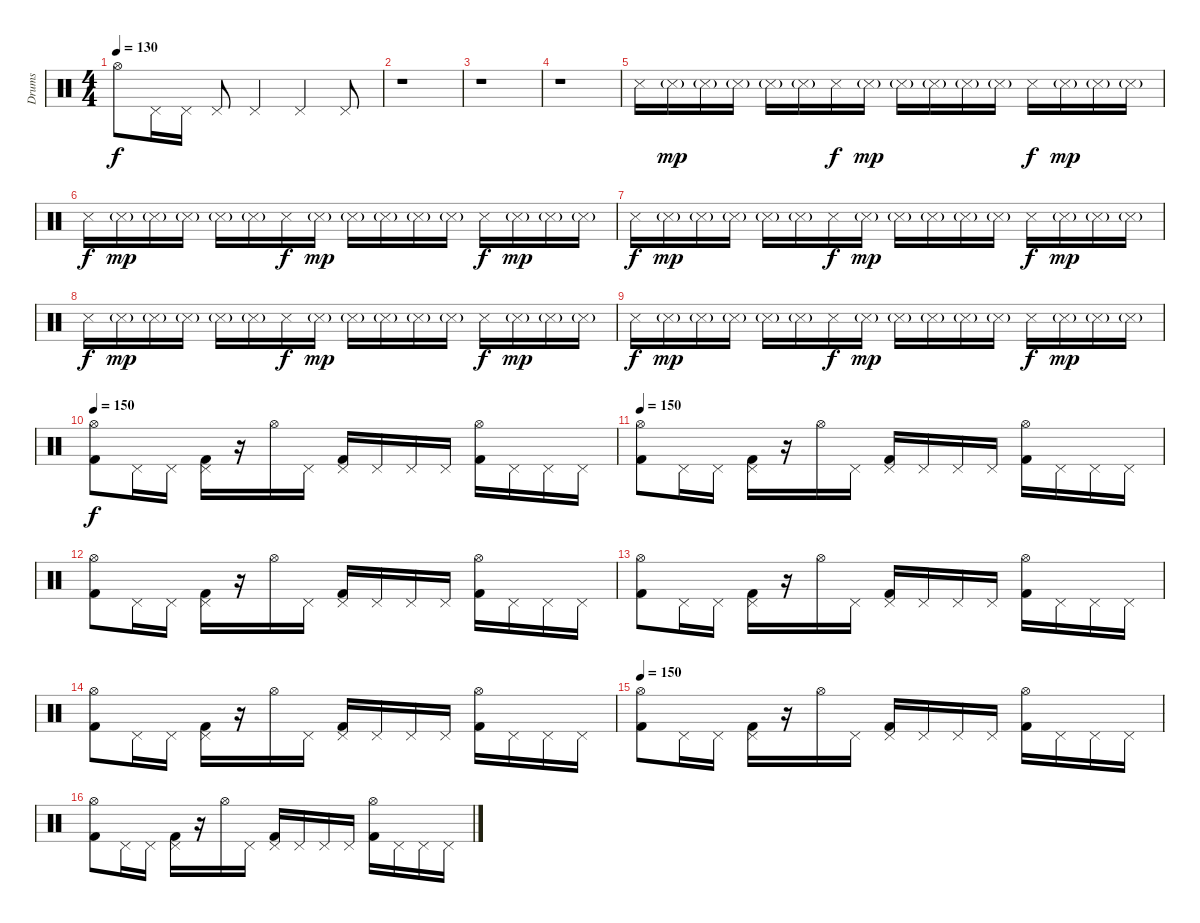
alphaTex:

\track ("Drums" "Drums") {instrument percussion}
\staff {score}
\articulation defaults
\ts (4 4)
\tempo 130
\clef neutral
\ks c "Hi-Hat (open)".8{dy f} "Pedal Hi-Hat (hit)".16 "Pedal Hi-Hat (hit)".16 "Pedal Hi-Hat (hit)".8 "Pedal Hi-Hat (hit)".4 "Pedal Hi-Hat (hit)".4 "Pedal Hi-Hat (hit)".8
|
r.1 |
r.1 |
r.1 |
"Metronome (hit)".16 "Metronome (hit)"{g}.16{dy mp} "Metronome (hit)"{g}.16 "Metronome (hit)"{g}.16 "Metronome (hit)"{g}.16 "Metronome (hit)"{g}.16 "Metronome (hit)".16{dy f} "Metronome (hit)"{g}.16{dy mp} "Metronome (hit)"{g}.16 "Metronome (hit)"{g}.16 "Metronome (hit)"{g}.16 "Metronome (hit)"{g}.16 "Metronome (hit)".16{dy f} "Metronome (hit)"{g}.16{dy mp} "Metronome (hit)"{g}.16 "Metronome (hit)"{g}.16 |
"Metronome (hit)".16{dy f} "Metronome (hit)"{g}.16{dy mp} "Metronome (hit)"{g}.16 "Metronome (hit)"{g}.16 "Metronome (hit)"{g}.16 "Metronome (hit)"{g}.16 "Metronome (hit)".16{dy f} "Metronome (hit)"{g}.16{dy mp} "Metronome (hit)"{g}.16 "Metronome (hit)"{g}.16 "Metronome (hit)"{g}.16 "Metronome (hit)"{g}.16 "Metronome (hit)".16{dy f} "Metronome (hit)"{g}.16{dy mp} "Metronome (hit)"{g}.16 "Metronome (hit)"{g}.16 |
"Metronome (hit)".16{dy f} "Metronome (hit)"{g}.16{dy mp} "Metronome (hit)"{g}.16 "Metronome (hit)"{g}.16 "Metronome (hit)"{g}.16 "Metronome (hit)"{g}.16 "Metronome (hit)".16{dy f} "Metronome (hit)"{g}.16{dy mp} "Metronome (hit)"{g}.16 "Metronome (hit)"{g}.16 "Metronome (hit)"{g}.16 "Metronome (hit)"{g}.16 "Metronome (hit)".16{dy f} "Metronome (hit)"{g}.16{dy mp} "Metronome (hit)"{g}.16 "Metronome (hit)"{g}.16 |
"Metronome (hit)".16{dy f} "Metronome (hit)"{g}.16{dy mp} "Metronome (hit)"{g}.16 "Metronome (hit)"{g}.16 "Metronome (hit)"{g}.16 "Metronome (hit)"{g}.16 "Metronome (hit)".16{dy f} "Metronome (hit)"{g}.16{dy mp} "Metronome (hit)"{g}.16 "Metronome (hit)"{g}.16 "Metronome (hit)"{g}.16 "Metronome (hit)"{g}.16 "Metronome (hit)".16{dy f} "Metronome (hit)"{g}.16{dy mp} "Metronome (hit)"{g}.16 "Metronome (hit)"{g}.16 |
"Metronome (hit)".16{dy f} "Metronome (hit)"{g}.16{dy mp} "Metronome (hit)"{g}.16 "Metronome (hit)"{g}.16 "Metronome (hit)"{g}.16 "Metronome (hit)"{g}.16 "Metronome (hit)".16{dy f} "Metronome (hit)"{g}.16{dy mp} "Metronome (hit)"{g}.16 "Metronome (hit)"{g}.16 "Metronome (hit)"{g}.16 "Metronome (hit)"{g}.16 "Metronome (hit)".16{dy f} "Metronome (hit)"{g}.16{dy mp} "Metronome (hit)"{g}.16 "Metronome (hit)"{g}.16 |
\tempo 150
("Hi-Hat (open)" "Kick (hit) 2").8{dy f} "Pedal Hi-Hat (hit)".16 "Pedal Hi-Hat (hit)".16 ("Pedal Hi-Hat (hit)" "Kick (hit) 2").16 r.16 "Hi-Hat (open)".16 "Pedal Hi-Hat (hit)".16 ("Pedal Hi-Hat (hit)" "Kick (hit) 2").16 "Pedal Hi-Hat (hit)".16 "Pedal Hi-Hat (hit)".16 "Pedal Hi-Hat (hit)".16 ("Hi-Hat (open)" "Kick (hit) 2").16 "Pedal Hi-Hat (hit)".16 "Pedal Hi-Hat (hit)".16 "Pedal Hi-Hat (hit)".16 |
\tempo 150
("Hi-Hat (open)" "Kick (hit) 2").8 "Pedal Hi-Hat (hit)".16 "Pedal Hi-Hat (hit)".16 ("Pedal Hi-Hat (hit)" "Kick (hit) 2").16 r.16 "Hi-Hat (open)".16 "Pedal Hi-Hat (hit)".16 ("Pedal Hi-Hat (hit)" "Kick (hit) 2").16 "Pedal Hi-Hat (hit)".16 "Pedal Hi-Hat (hit)".16 "Pedal Hi-Hat (hit)".16 ("Hi-Hat (open)" "Kick (hit) 2").16 "Pedal Hi-Hat (hit)".16 "Pedal Hi-Hat (hit)".16 "Pedal Hi-Hat (hit)".16 |
("Hi-Hat (open)" "Kick (hit) 2").8 "Pedal Hi-Hat (hit)".16 "Pedal Hi-Hat (hit)".16 ("Pedal Hi-Hat (hit)" "Kick (hit) 2").16 r.16 "Hi-Hat (open)".16 "Pedal Hi-Hat (hit)".16 ("Pedal Hi-Hat (hit)" "Kick (hit) 2").16 "Pedal Hi-Hat (hit)".16 "Pedal Hi-Hat (hit)".16 "Pedal Hi-Hat (hit)".16 ("Hi-Hat (open)" "Kick (hit) 2").16 "Pedal Hi-Hat (hit)".16 "Pedal Hi-Hat (hit)".16 "Pedal Hi-Hat (hit)".16 |
("Hi-Hat (open)" "Kick (hit) 2").8 "Pedal Hi-Hat (hit)".16 "Pedal Hi-Hat (hit)".16 ("Pedal Hi-Hat (hit)" "Kick (hit) 2").16 r.16 "Hi-Hat (open)".16 "Pedal Hi-Hat (hit)".16 ("Pedal Hi-Hat (hit)" "Kick (hit) 2").16 "Pedal Hi-Hat (hit)".16 "Pedal Hi-Hat (hit)".16 "Pedal Hi-Hat (hit)".16 ("Hi-Hat (open)" "Kick (hit) 2").16 "Pedal Hi-Hat (hit)".16 "Pedal Hi-Hat (hit)".16 "Pedal Hi-Hat (hit)".16 |
("Hi-Hat (open)" "Kick (hit) 2").8 "Pedal Hi-Hat (hit)".16 "Pedal Hi-Hat (hit)".16 ("Pedal Hi-Hat (hit)" "Kick (hit) 2").16 r.16 "Hi-Hat (open)".16 "Pedal Hi-Hat (hit)".16 ("Pedal Hi-Hat (hit)" "Kick (hit) 2").16 "Pedal Hi-Hat (hit)".16 "Pedal Hi-Hat (hit)".16 "Pedal Hi-Hat (hit)".16 ("Hi-Hat (open)" "Kick (hit) 2").16 "Pedal Hi-Hat (hit)".16 "Pedal Hi-Hat (hit)".16 "Pedal Hi-Hat (hit)".16 |
\tempo 150
("Hi-Hat (open)" "Kick (hit) 2").8 "Pedal Hi-Hat (hit)".16 "Pedal Hi-Hat (hit)".16 ("Pedal Hi-Hat (hit)" "Kick (hit) 2").16 r.16 "Hi-Hat (open)".16 "Pedal Hi-Hat (hit)".16 ("Pedal Hi-Hat (hit)" "Kick (hit) 2").16 "Pedal Hi-Hat (hit)".16 "Pedal Hi-Hat (hit)".16 "Pedal Hi-Hat (hit)".16 ("Hi-Hat (open)" "Kick (hit) 2").16 "Pedal Hi-Hat (hit)".16 "Pedal Hi-Hat (hit)".16 "Pedal Hi-Hat (hit)".16 |
("Hi-Hat (open)" "Kick (hit) 2").8 "Pedal Hi-Hat (hit)".16 "Pedal Hi-Hat (hit)".16 ("Pedal Hi-Hat (hit)" "Kick (hit) 2").16 r.16 "Hi-Hat (open)".16 "Pedal Hi-Hat (hit)".16 ("Pedal Hi-Hat (hit)" "Kick (hit) 2").16 "Pedal Hi-Hat (hit)".16 "Pedal Hi-Hat (hit)".16 "Pedal Hi-Hat (hit)".16 ("Hi-Hat (open)" "Kick (hit) 2").16 "Pedal Hi-Hat (hit)".16 "Pedal Hi-Hat (hit)".16 "Pedal Hi-Hat (hit)".16
